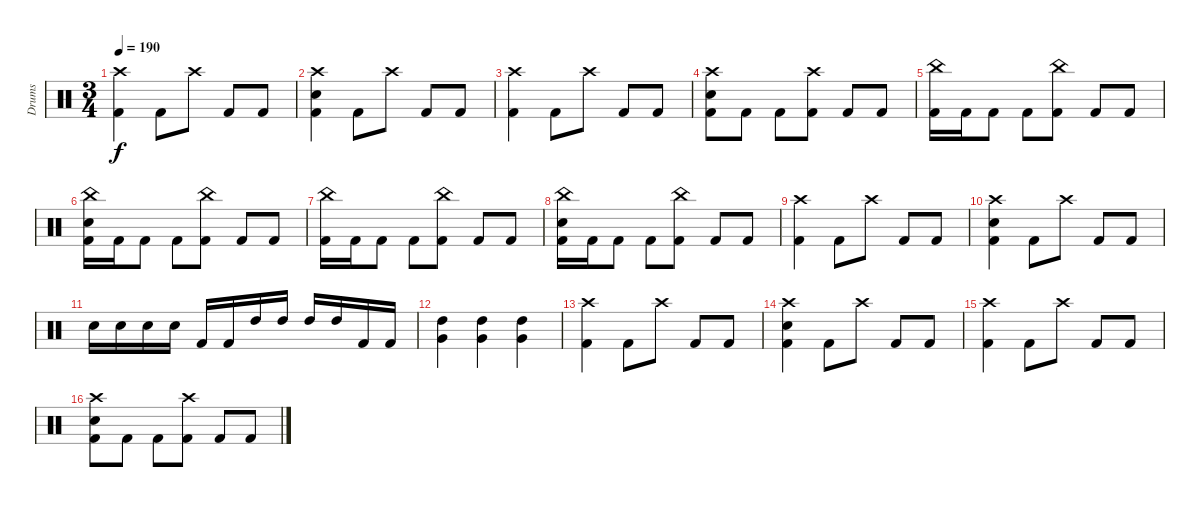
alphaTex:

\track ("Drums" "Drums") {instrument percussion}
\staff {score}
\articulation defaults
\ts (3 4)
\tempo 190
\clef neutral
\ks c
("Crash high (hit)" "Kick (hit) 2").4{dy f} "Kick (hit) 2".8 "Crash high (hit)".8 "Kick (hit) 2".8 "Kick (hit) 2".8 |
("Crash high (hit)" "Snare (hit) 2" "Kick (hit) 2").4 "Kick (hit) 2".8 "Crash high (hit)".8 "Kick (hit) 2".8 "Kick (hit) 2".8 |
("Crash high (hit)" "Kick (hit) 2").4 "Kick (hit) 2".8 "Crash high (hit)".8 "Kick (hit) 2".8 "Kick (hit) 2".8 |
("Crash high (hit)" "Snare (hit) 2" "Kick (hit) 2").8 "Kick (hit) 2".8 "Kick (hit) 2".8 ("Crash high (hit)" "Kick (hit) 2").8 "Kick (hit) 2".8 "Kick (hit) 2".8 |
("China (hit)" "Kick (hit) 2").16 "Kick (hit) 2".16 "Kick (hit) 2".8 "Kick (hit) 2".8 ("China (hit)" "Kick (hit) 2").8 "Kick (hit) 2".8 "Kick (hit) 2".8 |
("China (hit)" "Snare (hit) 2" "Kick (hit) 2").16 "Kick (hit) 2".16 "Kick (hit) 2".8 "Kick (hit) 2".8 ("China (hit)" "Kick (hit) 2").8 "Kick (hit) 2".8 "Kick (hit) 2".8 |
("China (hit)" "Kick (hit) 2").16 "Kick (hit) 2".16 "Kick (hit) 2".8 "Kick (hit) 2".8 ("China (hit)" "Kick (hit) 2").8 "Kick (hit) 2".8 "Kick (hit) 2".8 |
("China (hit)" "Snare (hit) 2" "Kick (hit) 2").16 "Kick (hit) 2".16 "Kick (hit) 2".8 "Kick (hit) 2".8 ("China (hit)" "Kick (hit) 2").8 "Kick (hit) 2".8 "Kick (hit) 2".8 |
("Crash high (hit)" "Kick (hit) 2").4 "Kick (hit) 2".8 "Crash high (hit)".8 "Kick (hit) 2".8 "Kick (hit) 2".8 |
("Crash high (hit)" "Snare (hit) 2" "Kick (hit) 2").4 "Kick (hit) 2".8 "Crash high (hit)".8 "Kick (hit) 2".8 "Kick (hit) 2".8 |
"Snare (hit) 2".16 "Snare (hit) 2".16 "Snare (hit) 2".16 "Snare (hit) 2".16 "Kick (hit) 2".16 "Kick (hit) 2".16 "High Tom (hit)".16 "High Tom (hit)".16 "High Tom (hit)".16 "High Tom (hit)".16 "Kick (hit) 2".16 "Kick (hit) 2".16 |
("High Tom (hit)" "Very Low Tom (hit)").4 ("High Tom (hit)" "Very Low Tom (hit)").4 ("High Tom (hit)" "Very Low Tom (hit)").4 |
("Crash high (hit)" "Kick (hit) 2").4 "Kick (hit) 2".8 "Crash high (hit)".8 "Kick (hit) 2".8 "Kick (hit) 2".8 |
("Crash high (hit)" "Snare (hit) 2" "Kick (hit) 2").4 "Kick (hit) 2".8 "Crash high (hit)".8 "Kick (hit) 2".8 "Kick (hit) 2".8 |
("Crash high (hit)" "Kick (hit) 2").4 "Kick (hit) 2".8 "Crash high (hit)".8 "Kick (hit) 2".8 "Kick (hit) 2".8 |
("Crash high (hit)" "Snare (hit) 2" "Kick (hit) 2").8 "Kick (hit) 2".8 "Kick (hit) 2".8 ("Crash high (hit)" "Kick (hit) 2").8 "Kick (hit) 2".8 "Kick (hit) 2".8
